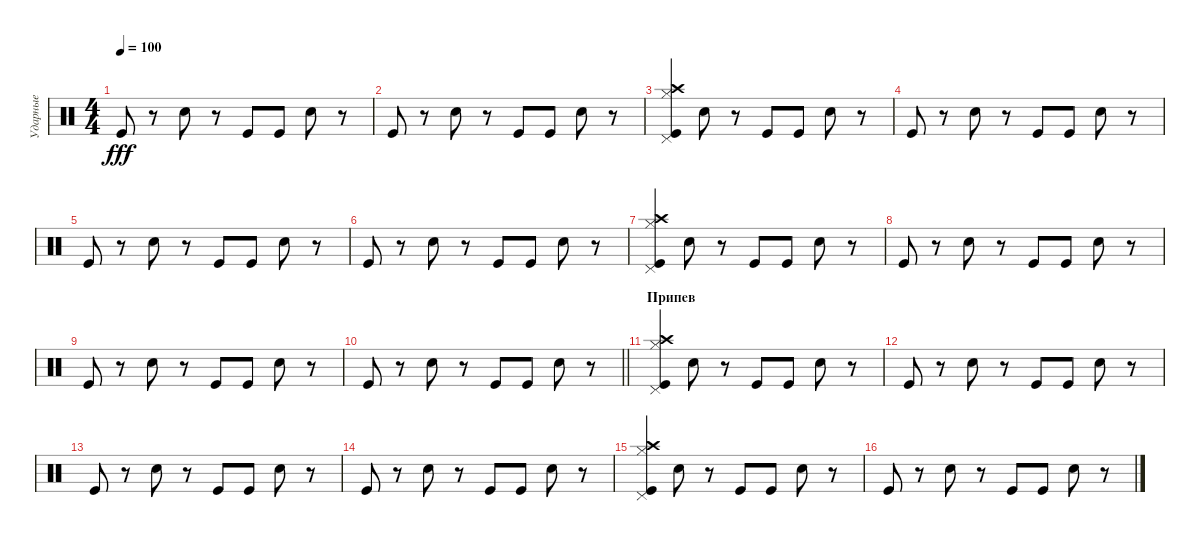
\track ("Ударные" "Ударные") {instrument percussion}
\staff {score}
\articulation defaults
\ts (4 4)
\tempo 100
\clef neutral
\ks c "Kick (hit)".8{dy fff}
r.8 "Electric Snare (hit)".8 r.8 "Kick (hit)".8 "Kick (hit)".8 "Electric Snare (hit)".8 r.8 |
"Kick (hit)".8 r.8 "Electric Snare (hit)".8 r.8 "Kick (hit)".8 "Kick (hit)".8 "Electric Snare (hit)".8 r.8 |
("Crash high (hit)" "Hi-Hat (closed)" "Pedal Hi-Hat (hit)" "Kick (hit)").4 "Electric Snare (hit)".8 r.8 "Kick (hit)".8 "Kick (hit)".8 "Electric Snare (hit)".8 r.8 |
"Kick (hit)".8 r.8 "Electric Snare (hit)".8 r.8 "Kick (hit)".8 "Kick (hit)".8 "Electric Snare (hit)".8 r.8 |
"Kick (hit)".8 r.8 "Electric Snare (hit)".8 r.8 "Kick (hit)".8 "Kick (hit)".8 "Electric Snare (hit)".8 r.8 |
"Kick (hit)".8 r.8 "Electric Snare (hit)".8 r.8 "Kick (hit)".8 "Kick (hit)".8 "Electric Snare (hit)".8 r.8 |
("Crash high (hit)" "Hi-Hat (closed)" "Pedal Hi-Hat (hit)" "Kick (hit)").4 "Electric Snare (hit)".8 r.8 "Kick (hit)".8 "Kick (hit)".8 "Electric Snare (hit)".8 r.8 |
"Kick (hit)".8 r.8 "Electric Snare (hit)".8 r.8 "Kick (hit)".8 "Kick (hit)".8 "Electric Snare (hit)".8 r.8 |
"Kick (hit)".8 r.8 "Electric Snare (hit)".8 r.8 "Kick (hit)".8 "Kick (hit)".8 "Electric Snare (hit)".8 r.8 |
\barLineRight lightlight "Kick (hit)".8
r.8 "Electric Snare (hit)".8 r.8 "Kick (hit)".8 "Kick (hit)".8 "Electric Snare (hit)".8 r.8 |
\section ("" "Припев")
("Crash high (hit)" "Hi-Hat (closed)" "Pedal Hi-Hat (hit)" "Kick (hit)").4 "Electric Snare (hit)".8 r.8 "Kick (hit)".8 "Kick (hit)".8 "Electric Snare (hit)".8 r.8 |
"Kick (hit)".8 r.8 "Electric Snare (hit)".8 r.8 "Kick (hit)".8 "Kick (hit)".8 "Electric Snare (hit)".8 r.8 |
"Kick (hit)".8 r.8 "Electric Snare (hit)".8 r.8 "Kick (hit)".8 "Kick (hit)".8 "Electric Snare (hit)".8 r.8 |
"Kick (hit)".8 r.8 "Electric Snare (hit)".8 r.8 "Kick (hit)".8 "Kick (hit)".8 "Electric Snare (hit)".8 r.8 |
("Crash high (hit)" "Hi-Hat (closed)" "Pedal Hi-Hat (hit)" "Kick (hit)").4 "Electric Snare (hit)".8 r.8 "Kick (hit)".8 "Kick (hit)".8 "Electric Snare (hit)".8 r.8 |
"Kick (hit)".8 r.8 "Electric Snare (hit)".8 r.8 "Kick (hit)".8 "Kick (hit)".8 "Electric Snare (hit)".8 r.8
